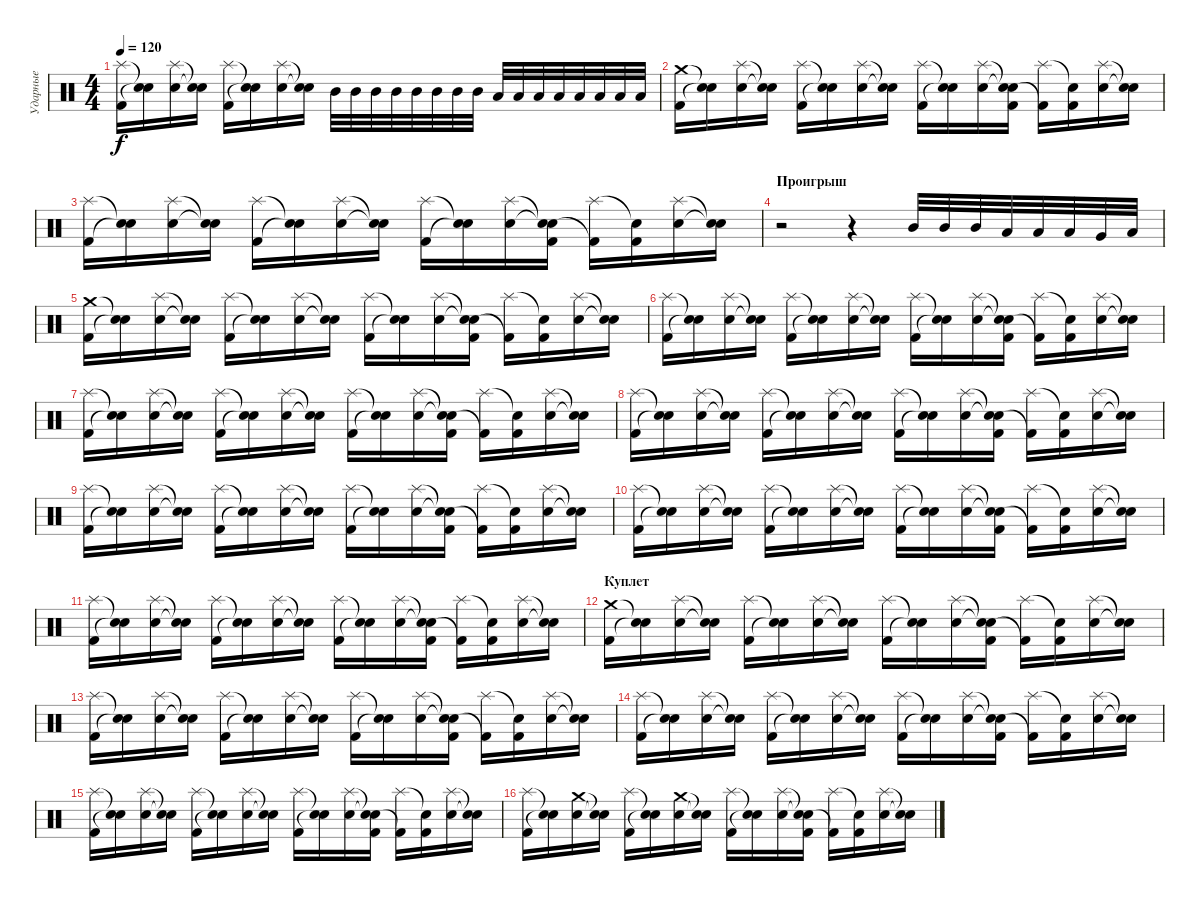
\track ("Ударные" "Ударные") {instrument percussion}
\staff {score}
\articulation defaults
\ts (4 4)
\tempo 120
\clef neutral
\ks c
("Splash (hit)" "Kick (hit) 2").16{dy f} ("Snare (hit)"{t} "Snare (hit)"{t}).16 ("Splash (hit)" "Electric Snare (hit)").16 ("Snare (hit)"{t} "Snare (hit)"{t}).16 ("Splash (hit)" "Kick (hit) 2").16 ("Snare (hit)"{t} "Snare (hit)"{t}).16 ("Splash (hit)" "Electric Snare (hit)").16 ("Snare (hit)"{t} "Snare (hit)"{t}).16 "Mid Tom (hit)".32 "Mid Tom (hit)".32 "Mid Tom (hit)".32 "Mid Tom (hit)".32 "Mid Tom (hit)".32 "Mid Tom (hit)".32 "Mid Tom (hit)".32 "Mid Tom (hit)".32 "Low Tom (hit)".32 "Low Tom (hit)".32 "Low Tom (hit)".32 "Low Tom (hit)".32 "Low Tom (hit)".32 "Low Tom (hit)".32 "Low Tom (hit)".32 "Low Tom (hit)".32 |
("Crash medium (hit)" "Kick (hit) 2").16 ("Snare (hit)"{t} "Snare (hit)"{t}).16 ("Splash (hit)" "Electric Snare (hit)").16 ("Snare (hit)"{t} "Snare (hit)"{t}).16 ("Splash (hit)" "Kick (hit) 2").16 ("Snare (hit)"{t} "Snare (hit)"{t}).16 ("Splash (hit)" "Electric Snare (hit)").16 ("Snare (hit)"{t} "Snare (hit)"{t}).16 ("Splash (hit)" "Kick (hit) 2").16 ("Snare (hit)"{t} "Snare (hit)"{t}).16 ("Splash (hit)" "Electric Snare (hit)").16 ("Snare (hit)"{t} "Snare (hit)"{t} "Kick (hit) 2").16 ("Splash (hit)" "Kick (hit) 2"{t}).16 ("Snare (hit)"{t} "Kick (hit) 2").16 ("Splash (hit)" "Electric Snare (hit)").16 ("Snare (hit)"{t} "Snare (hit)"{t}).16 |
("Splash (hit)" "Kick (hit) 2").16 ("Snare (hit)"{t} "Snare (hit)"{t}).16 ("Splash (hit)" "Electric Snare (hit)").16 ("Snare (hit)"{t} "Snare (hit)"{t}).16 ("Splash (hit)" "Kick (hit) 2").16 ("Snare (hit)"{t} "Snare (hit)"{t}).16 ("Splash (hit)" "Electric Snare (hit)").16 ("Snare (hit)"{t} "Snare (hit)"{t}).16 ("Splash (hit)" "Kick (hit) 2").16 ("Snare (hit)"{t} "Snare (hit)"{t}).16 ("Splash (hit)" "Electric Snare (hit)").16 ("Snare (hit)"{t} "Snare (hit)"{t} "Kick (hit) 2").16 ("Splash (hit)" "Kick (hit) 2"{t}).16 ("Snare (hit)"{t} "Kick (hit) 2").16 ("Splash (hit)" "Electric Snare (hit)").16 ("Snare (hit)"{t} "Snare (hit)"{t}).16 |
\section ("" "Проигрыш")
r.2 r.4 "Mid Tom (hit)".32 "Mid Tom (hit)".32 "Mid Tom (hit)".32 "Low Tom (hit)".32 "Low Tom (hit)".32 "Low Tom (hit)".32 "Very Low Tom (hit)".32 "Low Floor Tom (hit)".32 |
("Crash medium (hit)" "Kick (hit) 2").16 ("Snare (hit)"{t} "Snare (hit)"{t}).16 ("Splash (hit)" "Electric Snare (hit)").16 ("Snare (hit)"{t} "Snare (hit)"{t}).16 ("Splash (hit)" "Kick (hit) 2").16 ("Snare (hit)"{t} "Snare (hit)"{t}).16 ("Splash (hit)" "Electric Snare (hit)").16 ("Snare (hit)"{t} "Snare (hit)"{t}).16 ("Splash (hit)" "Kick (hit) 2").16 ("Snare (hit)"{t} "Snare (hit)"{t}).16 ("Splash (hit)" "Electric Snare (hit)").16 ("Snare (hit)"{t} "Snare (hit)"{t} "Kick (hit) 2").16 ("Splash (hit)" "Kick (hit) 2"{t}).16 ("Snare (hit)"{t} "Kick (hit) 2").16 ("Splash (hit)" "Electric Snare (hit)").16 ("Snare (hit)"{t} "Snare (hit)"{t}).16 |
("Splash (hit)" "Kick (hit) 2").16 ("Snare (hit)"{t} "Snare (hit)"{t}).16 ("Splash (hit)" "Electric Snare (hit)").16 ("Snare (hit)"{t} "Snare (hit)"{t}).16 ("Splash (hit)" "Kick (hit) 2").16 ("Snare (hit)"{t} "Snare (hit)"{t}).16 ("Splash (hit)" "Electric Snare (hit)").16 ("Snare (hit)"{t} "Snare (hit)"{t}).16 ("Splash (hit)" "Kick (hit) 2").16 ("Snare (hit)"{t} "Snare (hit)"{t}).16 ("Splash (hit)" "Electric Snare (hit)").16 ("Snare (hit)"{t} "Snare (hit)"{t} "Kick (hit) 2").16 ("Splash (hit)" "Kick (hit) 2"{t}).16 ("Snare (hit)"{t} "Kick (hit) 2").16 ("Splash (hit)" "Electric Snare (hit)").16 ("Snare (hit)"{t} "Snare (hit)"{t}).16 |
("Splash (hit)" "Kick (hit) 2").16 ("Snare (hit)"{t} "Snare (hit)"{t}).16 ("Splash (hit)" "Electric Snare (hit)").16 ("Snare (hit)"{t} "Snare (hit)"{t}).16 ("Splash (hit)" "Kick (hit) 2").16 ("Snare (hit)"{t} "Snare (hit)"{t}).16 ("Splash (hit)" "Electric Snare (hit)").16 ("Snare (hit)"{t} "Snare (hit)"{t}).16 ("Splash (hit)" "Kick (hit) 2").16 ("Snare (hit)"{t} "Snare (hit)"{t}).16 ("Splash (hit)" "Electric Snare (hit)").16 ("Snare (hit)"{t} "Snare (hit)"{t} "Kick (hit) 2").16 ("Splash (hit)" "Kick (hit) 2"{t}).16 ("Snare (hit)"{t} "Kick (hit) 2").16 ("Splash (hit)" "Electric Snare (hit)").16 ("Snare (hit)"{t} "Snare (hit)"{t}).16 |
("Splash (hit)" "Kick (hit) 2").16 ("Snare (hit)"{t} "Snare (hit)"{t}).16 ("Splash (hit)" "Electric Snare (hit)").16 ("Snare (hit)"{t} "Snare (hit)"{t}).16 ("Splash (hit)" "Kick (hit) 2").16 ("Snare (hit)"{t} "Snare (hit)"{t}).16 ("Splash (hit)" "Electric Snare (hit)").16 ("Snare (hit)"{t} "Snare (hit)"{t}).16 ("Splash (hit)" "Kick (hit) 2").16 ("Snare (hit)"{t} "Snare (hit)"{t}).16 ("Splash (hit)" "Electric Snare (hit)").16 ("Snare (hit)"{t} "Snare (hit)"{t} "Kick (hit) 2").16 ("Splash (hit)" "Kick (hit) 2"{t}).16 ("Snare (hit)"{t} "Kick (hit) 2").16 ("Splash (hit)" "Electric Snare (hit)").16 ("Snare (hit)"{t} "Snare (hit)"{t}).16 |
("Splash (hit)" "Kick (hit) 2").16 ("Snare (hit)"{t} "Snare (hit)"{t}).16 ("Splash (hit)" "Electric Snare (hit)").16 ("Snare (hit)"{t} "Snare (hit)"{t}).16 ("Splash (hit)" "Kick (hit) 2").16 ("Snare (hit)"{t} "Snare (hit)"{t}).16 ("Splash (hit)" "Electric Snare (hit)").16 ("Snare (hit)"{t} "Snare (hit)"{t}).16 ("Splash (hit)" "Kick (hit) 2").16 ("Snare (hit)"{t} "Snare (hit)"{t}).16 ("Splash (hit)" "Electric Snare (hit)").16 ("Snare (hit)"{t} "Snare (hit)"{t} "Kick (hit) 2").16 ("Splash (hit)" "Kick (hit) 2"{t}).16 ("Snare (hit)"{t} "Kick (hit) 2").16 ("Splash (hit)" "Electric Snare (hit)").16 ("Snare (hit)"{t} "Snare (hit)"{t}).16 |
("Splash (hit)" "Kick (hit) 2").16 ("Snare (hit)"{t} "Snare (hit)"{t}).16 ("Splash (hit)" "Electric Snare (hit)").16 ("Snare (hit)"{t} "Snare (hit)"{t}).16 ("Splash (hit)" "Kick (hit) 2").16 ("Snare (hit)"{t} "Snare (hit)"{t}).16 ("Splash (hit)" "Electric Snare (hit)").16 ("Snare (hit)"{t} "Snare (hit)"{t}).16 ("Splash (hit)" "Kick (hit) 2").16 ("Snare (hit)"{t} "Snare (hit)"{t}).16 ("Splash (hit)" "Electric Snare (hit)").16 ("Snare (hit)"{t} "Snare (hit)"{t} "Kick (hit) 2").16 ("Splash (hit)" "Kick (hit) 2"{t}).16 ("Snare (hit)"{t} "Kick (hit) 2").16 ("Splash (hit)" "Electric Snare (hit)").16 ("Snare (hit)"{t} "Snare (hit)"{t}).16 |
("Splash (hit)" "Kick (hit) 2").16 ("Snare (hit)"{t} "Snare (hit)"{t}).16 ("Splash (hit)" "Electric Snare (hit)").16 ("Snare (hit)"{t} "Snare (hit)"{t}).16 ("Splash (hit)" "Kick (hit) 2").16 ("Snare (hit)"{t} "Snare (hit)"{t}).16 ("Splash (hit)" "Electric Snare (hit)").16 ("Snare (hit)"{t} "Snare (hit)"{t}).16 ("Splash (hit)" "Kick (hit) 2").16 ("Snare (hit)"{t} "Snare (hit)"{t}).16 ("Splash (hit)" "Electric Snare (hit)").16 ("Snare (hit)"{t} "Snare (hit)"{t} "Kick (hit) 2").16 ("Splash (hit)" "Kick (hit) 2"{t}).16 ("Snare (hit)"{t} "Kick (hit) 2").16 ("Splash (hit)" "Electric Snare (hit)").16 ("Snare (hit)"{t} "Snare (hit)"{t}).16 |
\section ("" "Куплет")
("Crash medium (hit)" "Kick (hit) 2").16 ("Snare (hit)"{t} "Snare (hit)"{t}).16 ("Splash (hit)" "Electric Snare (hit)").16 ("Snare (hit)"{t} "Snare (hit)"{t}).16 ("Splash (hit)" "Kick (hit) 2").16 ("Snare (hit)"{t} "Snare (hit)"{t}).16 ("Splash (hit)" "Electric Snare (hit)").16 ("Snare (hit)"{t} "Snare (hit)"{t}).16 ("Splash (hit)" "Kick (hit) 2").16 ("Snare (hit)"{t} "Snare (hit)"{t}).16 ("Splash (hit)" "Electric Snare (hit)").16 ("Snare (hit)"{t} "Snare (hit)"{t} "Kick (hit) 2").16 ("Splash (hit)" "Kick (hit) 2"{t}).16 ("Snare (hit)"{t} "Kick (hit) 2").16 ("Splash (hit)" "Electric Snare (hit)").16 ("Snare (hit)"{t} "Snare (hit)"{t}).16 |
("Splash (hit)" "Kick (hit) 2").16 ("Snare (hit)"{t} "Snare (hit)"{t}).16 ("Splash (hit)" "Electric Snare (hit)").16 ("Snare (hit)"{t} "Snare (hit)"{t}).16 ("Splash (hit)" "Kick (hit) 2").16 ("Snare (hit)"{t} "Snare (hit)"{t}).16 ("Splash (hit)" "Electric Snare (hit)").16 ("Snare (hit)"{t} "Snare (hit)"{t}).16 ("Splash (hit)" "Kick (hit) 2").16 ("Snare (hit)"{t} "Snare (hit)"{t}).16 ("Splash (hit)" "Electric Snare (hit)").16 ("Snare (hit)"{t} "Snare (hit)"{t} "Kick (hit) 2").16 ("Splash (hit)" "Kick (hit) 2"{t}).16 ("Snare (hit)"{t} "Kick (hit) 2").16 ("Splash (hit)" "Electric Snare (hit)").16 ("Snare (hit)"{t} "Snare (hit)"{t}).16 |
("Splash (hit)" "Kick (hit) 2").16 ("Snare (hit)"{t} "Snare (hit)"{t}).16 ("Splash (hit)" "Electric Snare (hit)").16 ("Snare (hit)"{t} "Snare (hit)"{t}).16 ("Splash (hit)" "Kick (hit) 2").16 ("Snare (hit)"{t} "Snare (hit)"{t}).16 ("Splash (hit)" "Electric Snare (hit)").16 ("Snare (hit)"{t} "Snare (hit)"{t}).16 ("Splash (hit)" "Kick (hit) 2").16 ("Snare (hit)"{t} "Snare (hit)"{t}).16 ("Splash (hit)" "Electric Snare (hit)").16 ("Snare (hit)"{t} "Snare (hit)"{t} "Kick (hit) 2").16 ("Splash (hit)" "Kick (hit) 2"{t}).16 ("Snare (hit)"{t} "Kick (hit) 2").16 ("Splash (hit)" "Electric Snare (hit)").16 ("Snare (hit)"{t} "Snare (hit)"{t}).16 |
("Splash (hit)" "Kick (hit) 2").16 ("Snare (hit)"{t} "Snare (hit)"{t}).16 ("Splash (hit)" "Electric Snare (hit)").16 ("Snare (hit)"{t} "Snare (hit)"{t}).16 ("Splash (hit)" "Kick (hit) 2").16 ("Snare (hit)"{t} "Snare (hit)"{t}).16 ("Splash (hit)" "Electric Snare (hit)").16 ("Snare (hit)"{t} "Snare (hit)"{t}).16 ("Splash (hit)" "Kick (hit) 2").16 ("Snare (hit)"{t} "Snare (hit)"{t}).16 ("Splash (hit)" "Electric Snare (hit)").16 ("Snare (hit)"{t} "Snare (hit)"{t} "Kick (hit) 2").16 ("Splash (hit)" "Kick (hit) 2"{t}).16 ("Snare (hit)"{t} "Kick (hit) 2").16 ("Splash (hit)" "Electric Snare (hit)").16 ("Snare (hit)"{t} "Snare (hit)"{t}).16 |
("Splash (hit)" "Kick (hit) 2").16 ("Snare (hit)"{t} "Snare (hit)"{t}).16 ("Crash medium (hit)" "Electric Snare (hit)").16 ("Snare (hit)"{t} "Snare (hit)"{t}).16 ("Splash (hit)" "Kick (hit) 2").16 ("Snare (hit)"{t} "Snare (hit)"{t}).16 ("Crash medium (hit)" "Electric Snare (hit)").16 ("Snare (hit)"{t} "Snare (hit)"{t}).16 ("Splash (hit)" "Kick (hit) 2").16 ("Snare (hit)"{t} "Snare (hit)"{t}).16 ("Splash (hit)" "Electric Snare (hit)").16 ("Snare (hit)"{t} "Snare (hit)"{t} "Kick (hit) 2").16 ("Splash (hit)" "Kick (hit) 2"{t}).16 ("Snare (hit)"{t} "Kick (hit) 2").16 ("Splash (hit)" "Electric Snare (hit)").16 ("Snare (hit)"{t} "Snare (hit)"{t}).16
